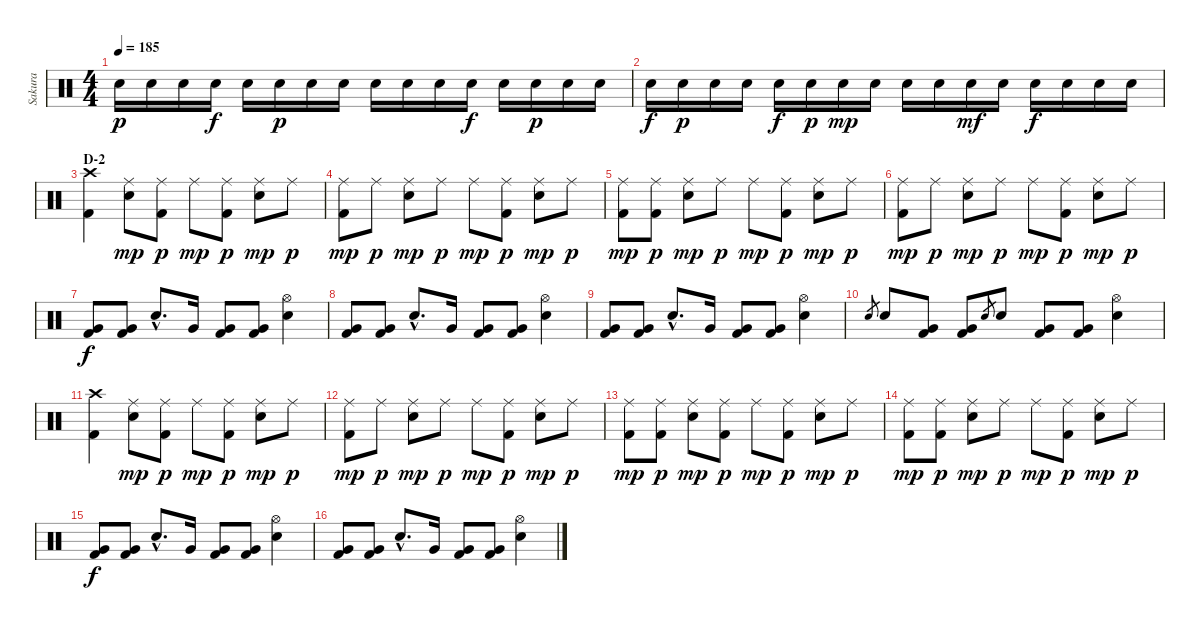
\track ("Sakura" "Sakura") {instrument percussion}
\staff {score}
\articulation defaults
\ts (4 4)
\tempo 185
\clef neutral
\ks c "Snare (hit) 2".16{dy p} "Snare (hit) 2".16 "Snare (hit) 2".16 "Snare (hit) 2".16{dy f} "Snare (hit) 2".16 "Snare (hit) 2".16{dy p} "Snare (hit) 2".16 "Snare (hit) 2".16 "Snare (hit) 2".16 "Snare (hit) 2".16 "Snare (hit) 2".16 "Snare (hit) 2".16{dy f} "Snare (hit) 2".16 "Snare (hit) 2".16{dy p} "Snare (hit) 2".16 "Snare (hit) 2".16
|
"Snare (hit) 2".16{dy f} "Snare (hit) 2".16{dy p} "Snare (hit) 2".16 "Snare (hit) 2".16 "Snare (hit) 2".16{dy f} "Snare (hit) 2".16{dy p} "Snare (hit) 2".16{dy mp} "Snare (hit) 2".16 "Snare (hit) 2".16 "Snare (hit) 2".16 "Snare (hit) 2".16{dy mf} "Snare (hit) 2".16 "Snare (hit) 2".16{dy f} "Snare (hit) 2".16 "Snare (hit) 2".16 "Snare (hit) 2".16 |
\section ("" "D-2")
("Crash high (hit)" "Kick (hit) 2").4 ("Ride (middle)" "Electric Snare (hit)").8{dy mp} ("Ride (middle)" "Kick (hit) 2").8{dy p} "Ride (middle)".8{dy mp} ("Ride (middle)" "Kick (hit) 2").8{dy p} ("Ride (middle)" "Electric Snare (hit)").8{dy mp} "Ride (middle)".8{dy p} |
("Ride (middle)" "Kick (hit) 2").8{dy mp} "Ride (middle)".8{dy p} ("Ride (middle)" "Electric Snare (hit)").8{dy mp} "Ride (middle)".8{dy p} "Ride (middle)".8{dy mp} ("Ride (middle)" "Kick (hit) 2").8{dy p} ("Ride (middle)" "Electric Snare (hit)").8{dy mp} "Ride (middle)".8{dy p} |
("Ride (middle)" "Kick (hit) 2").8{dy mp} ("Ride (middle)" "Kick (hit) 2").8{dy p} ("Ride (middle)" "Electric Snare (hit)").8{dy mp} "Ride (middle)".8{dy p} "Ride (middle)".8{dy mp} ("Ride (middle)" "Kick (hit) 2").8{dy p} ("Ride (middle)" "Electric Snare (hit)").8{dy mp} "Ride (middle)".8{dy p} |
("Ride (middle)" "Kick (hit) 2").8{dy mp} "Ride (middle)".8{dy p} ("Ride (middle)" "Electric Snare (hit)").8{dy mp} "Ride (middle)".8{dy p} "Ride (middle)".8{dy mp} ("Ride (middle)" "Kick (hit) 2").8{dy p} ("Ride (middle)" "Electric Snare (hit)").8{dy mp} "Ride (middle)".8{dy p} |
("Very Low Tom (hit)" "Kick (hit) 2").8{dy f} ("Very Low Tom (hit)" "Kick (hit) 2").8 "Electric Snare (hit)"{hac}.8{d} "Very Low Tom (hit)".16 ("Very Low Tom (hit)" "Kick (hit) 2").8 ("Very Low Tom (hit)" "Kick (hit) 2").8 ("Hi-Hat (open)" "Electric Snare (hit)").4 |
("Very Low Tom (hit)" "Kick (hit) 2").8 ("Very Low Tom (hit)" "Kick (hit) 2").8 "Electric Snare (hit)"{hac}.8{d} "Very Low Tom (hit)".16 ("Very Low Tom (hit)" "Kick (hit) 2").8 ("Very Low Tom (hit)" "Kick (hit) 2").8 ("Hi-Hat (open)" "Electric Snare (hit)").4 |
("Very Low Tom (hit)" "Kick (hit) 2").8 ("Very Low Tom (hit)" "Kick (hit) 2").8 "Electric Snare (hit)"{hac}.8{d} "Very Low Tom (hit)".16 ("Very Low Tom (hit)" "Kick (hit) 2").8 ("Very Low Tom (hit)" "Kick (hit) 2").8 ("Hi-Hat (open)" "Electric Snare (hit)").4 |
"Electric Snare (hit)".8{gr} "Electric Snare (hit)".8 ("Very Low Tom (hit)" "Kick (hit) 2").8 ("Very Low Tom (hit)" "Kick (hit) 2").8 "Electric Snare (hit)".8{gr} "Electric Snare (hit)".8 ("Very Low Tom (hit)" "Kick (hit) 2").8 ("Very Low Tom (hit)" "Kick (hit) 2").8 ("Hi-Hat (open)" "Electric Snare (hit)").4 |
("Crash high (hit)" "Kick (hit) 2").4 ("Ride (middle)" "Electric Snare (hit)").8{dy mp} ("Ride (middle)" "Kick (hit) 2").8{dy p} "Ride (middle)".8{dy mp} ("Ride (middle)" "Kick (hit) 2").8{dy p} ("Ride (middle)" "Electric Snare (hit)").8{dy mp} "Ride (middle)".8{dy p} |
("Ride (middle)" "Kick (hit) 2").8{dy mp} "Ride (middle)".8{dy p} ("Ride (middle)" "Electric Snare (hit)").8{dy mp} "Ride (middle)".8{dy p} "Ride (middle)".8{dy mp} ("Ride (middle)" "Kick (hit) 2").8{dy p} ("Ride (middle)" "Electric Snare (hit)").8{dy mp} "Ride (middle)".8{dy p} |
("Ride (middle)" "Kick (hit) 2").8{dy mp} ("Ride (middle)" "Kick (hit) 2").8{dy p} ("Ride (middle)" "Electric Snare (hit)").8{dy mp} ("Ride (middle)" "Kick (hit) 2").8{dy p} "Ride (middle)".8{dy mp} ("Ride (middle)" "Kick (hit) 2").8{dy p} ("Ride (middle)" "Electric Snare (hit)").8{dy mp} "Ride (middle)".8{dy p} |
("Ride (middle)" "Kick (hit) 2").8{dy mp} ("Ride (middle)" "Kick (hit) 2").8{dy p} ("Ride (middle)" "Electric Snare (hit)").8{dy mp} "Ride (middle)".8{dy p} "Ride (middle)".8{dy mp} ("Ride (middle)" "Kick (hit) 2").8{dy p} ("Ride (middle)" "Electric Snare (hit)").8{dy mp} "Ride (middle)".8{dy p} |
("Very Low Tom (hit)" "Kick (hit) 2").8{dy f} ("Very Low Tom (hit)" "Kick (hit) 2").8 "Electric Snare (hit)"{hac}.8{d} "Very Low Tom (hit)".16 ("Very Low Tom (hit)" "Kick (hit) 2").8 ("Very Low Tom (hit)" "Kick (hit) 2").8 ("Hi-Hat (open)" "Electric Snare (hit)").4 |
("Very Low Tom (hit)" "Kick (hit) 2").8 ("Very Low Tom (hit)" "Kick (hit) 2").8 "Electric Snare (hit)"{hac}.8{d} "Very Low Tom (hit)".16 ("Very Low Tom (hit)" "Kick (hit) 2").8 ("Very Low Tom (hit)" "Kick (hit) 2").8 ("Hi-Hat (open)" "Electric Snare (hit)").4
